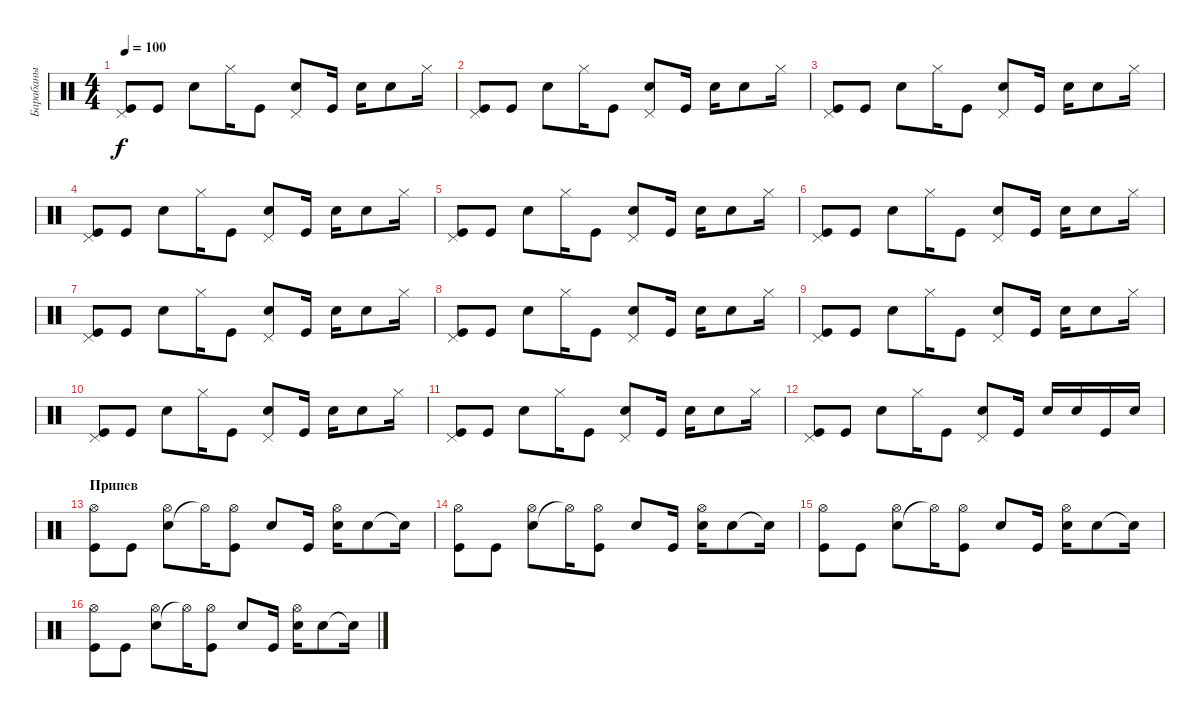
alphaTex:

\track ("Барабаны" "Барабаны") {instrument percussion}
\staff {score}
\articulation defaults
\ts (4 4)
\tempo 100
\clef neutral
\ks c
("Kick (hit)" "Pedal Hi-Hat (hit)").8{dy f} "Kick (hit)".8 "Snare (hit) 2".8 "Hi-Hat (closed)".16 "Kick (hit)".8 ("Snare (hit) 2" "Pedal Hi-Hat (hit)").8 "Kick (hit)".16 "Snare (hit) 2".16 "Snare (hit) 2".8 "Hi-Hat (closed)".16 |
("Kick (hit)" "Pedal Hi-Hat (hit)").8 "Kick (hit)".8 "Snare (hit) 2".8 "Hi-Hat (closed)".16 "Kick (hit)".8 ("Snare (hit) 2" "Pedal Hi-Hat (hit)").8 "Kick (hit)".16 "Snare (hit) 2".16 "Snare (hit) 2".8 "Hi-Hat (closed)".16 |
("Kick (hit)" "Pedal Hi-Hat (hit)").8 "Kick (hit)".8 "Snare (hit) 2".8 "Hi-Hat (closed)".16 "Kick (hit)".8 ("Snare (hit) 2" "Pedal Hi-Hat (hit)").8 "Kick (hit)".16 "Snare (hit) 2".16 "Snare (hit) 2".8 "Hi-Hat (closed)".16 |
("Kick (hit)" "Pedal Hi-Hat (hit)").8 "Kick (hit)".8 "Snare (hit) 2".8 "Hi-Hat (closed)".16 "Kick (hit)".8 ("Snare (hit) 2" "Pedal Hi-Hat (hit)").8 "Kick (hit)".16 "Snare (hit) 2".16 "Snare (hit) 2".8 "Hi-Hat (closed)".16 |
("Kick (hit)" "Pedal Hi-Hat (hit)").8 "Kick (hit)".8 "Snare (hit) 2".8 "Hi-Hat (closed)".16 "Kick (hit)".8 ("Snare (hit) 2" "Pedal Hi-Hat (hit)").8 "Kick (hit)".16 "Snare (hit) 2".16 "Snare (hit) 2".8 "Hi-Hat (closed)".16 |
("Kick (hit)" "Pedal Hi-Hat (hit)").8 "Kick (hit)".8 "Snare (hit) 2".8 "Hi-Hat (closed)".16 "Kick (hit)".8 ("Snare (hit) 2" "Pedal Hi-Hat (hit)").8 "Kick (hit)".16 "Snare (hit) 2".16 "Snare (hit) 2".8 "Hi-Hat (closed)".16 |
("Kick (hit)" "Pedal Hi-Hat (hit)").8 "Kick (hit)".8 "Snare (hit) 2".8 "Hi-Hat (closed)".16 "Kick (hit)".8 ("Snare (hit) 2" "Pedal Hi-Hat (hit)").8 "Kick (hit)".16 "Snare (hit) 2".16 "Snare (hit) 2".8 "Hi-Hat (closed)".16 |
("Kick (hit)" "Pedal Hi-Hat (hit)").8 "Kick (hit)".8 "Snare (hit) 2".8 "Hi-Hat (closed)".16 "Kick (hit)".8 ("Snare (hit) 2" "Pedal Hi-Hat (hit)").8 "Kick (hit)".16 "Snare (hit) 2".16 "Snare (hit) 2".8 "Hi-Hat (closed)".16 |
("Kick (hit)" "Pedal Hi-Hat (hit)").8 "Kick (hit)".8 "Snare (hit) 2".8 "Hi-Hat (closed)".16 "Kick (hit)".8 ("Snare (hit) 2" "Pedal Hi-Hat (hit)").8 "Kick (hit)".16 "Snare (hit) 2".16 "Snare (hit) 2".8 "Hi-Hat (closed)".16 |
("Kick (hit)" "Pedal Hi-Hat (hit)").8 "Kick (hit)".8 "Snare (hit) 2".8 "Hi-Hat (closed)".16 "Kick (hit)".8 ("Snare (hit) 2" "Pedal Hi-Hat (hit)").8 "Kick (hit)".16 "Snare (hit) 2".16 "Snare (hit) 2".8 "Hi-Hat (closed)".16 |
("Kick (hit)" "Pedal Hi-Hat (hit)").8 "Kick (hit)".8 "Snare (hit) 2".8 "Hi-Hat (closed)".16 "Kick (hit)".8 ("Snare (hit) 2" "Pedal Hi-Hat (hit)").8 "Kick (hit)".16 "Snare (hit) 2".16 "Snare (hit) 2".8 "Hi-Hat (closed)".16 |
("Kick (hit)" "Pedal Hi-Hat (hit)").8 "Kick (hit)".8 "Snare (hit) 2".8 "Hi-Hat (closed)".16 "Kick (hit)".8 ("Snare (hit) 2" "Pedal Hi-Hat (hit)").8 "Kick (hit)".16 "Snare (hit) 2".16 "Snare (hit) 2".16 "Kick (hit)".16 "Snare (hit) 2".16 |
\section ("" "Припев")
("Kick (hit)" "Hi-Hat (open)").8 "Kick (hit)".8 ("Snare (hit) 2" "Hi-Hat (open)").8 "Hi-Hat (open)"{t}.16 ("Kick (hit)" "Hi-Hat (open)").8 "Snare (hit) 2".8 "Kick (hit)".16 ("Snare (hit) 2" "Hi-Hat (open)").16 "Snare (hit) 2".8 "Snare (hit) 2"{t}.16 |
("Kick (hit)" "Hi-Hat (open)").8 "Kick (hit)".8 ("Snare (hit) 2" "Hi-Hat (open)").8 "Hi-Hat (open)"{t}.16 ("Kick (hit)" "Hi-Hat (open)").8 "Snare (hit) 2".8 "Kick (hit)".16 ("Snare (hit) 2" "Hi-Hat (open)").16 "Snare (hit) 2".8 "Snare (hit) 2"{t}.16 |
("Kick (hit)" "Hi-Hat (open)").8 "Kick (hit)".8 ("Snare (hit) 2" "Hi-Hat (open)").8 "Hi-Hat (open)"{t}.16 ("Kick (hit)" "Hi-Hat (open)").8 "Snare (hit) 2".8 "Kick (hit)".16 ("Snare (hit) 2" "Hi-Hat (open)").16 "Snare (hit) 2".8 "Snare (hit) 2"{t}.16 |
("Kick (hit)" "Hi-Hat (open)").8 "Kick (hit)".8 ("Snare (hit) 2" "Hi-Hat (open)").8 "Hi-Hat (open)"{t}.16 ("Kick (hit)" "Hi-Hat (open)").8 "Snare (hit) 2".8 "Kick (hit)".16 ("Snare (hit) 2" "Hi-Hat (open)").16 "Snare (hit) 2".8 "Snare (hit) 2"{t}.16
